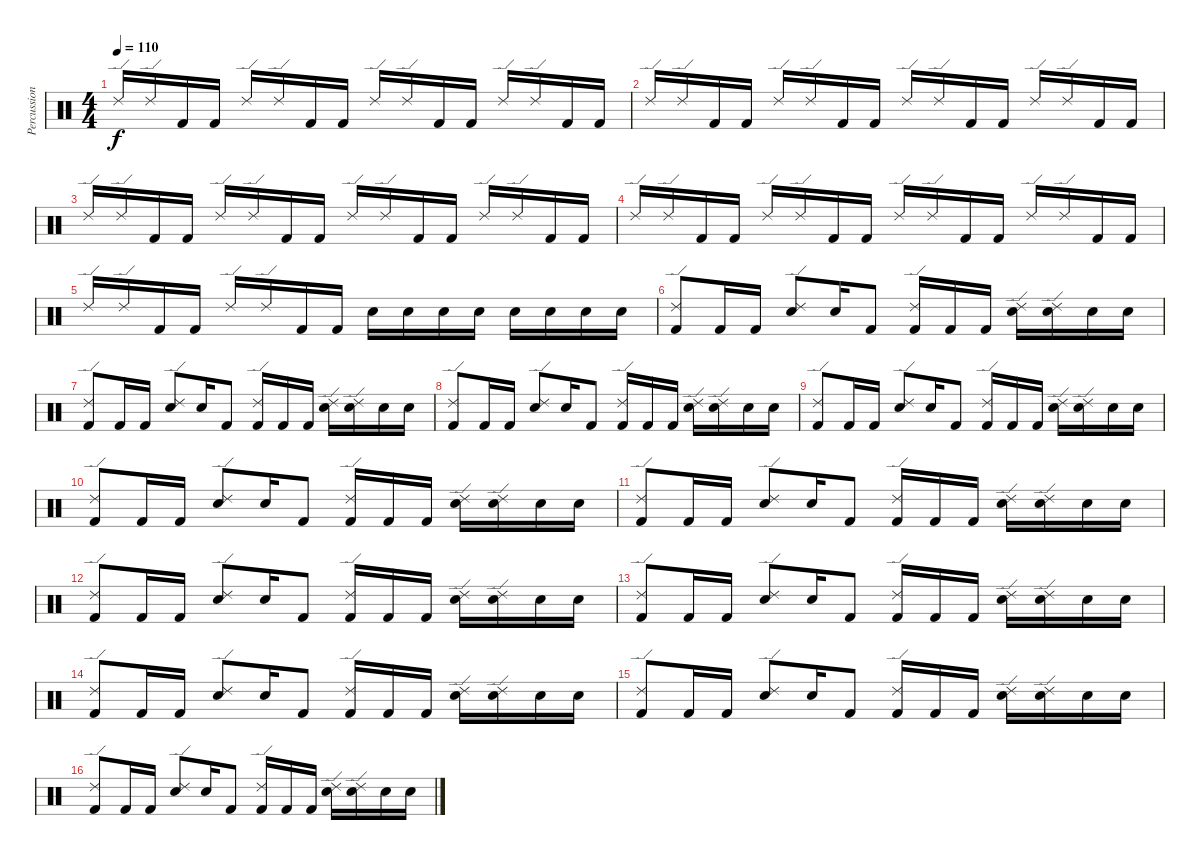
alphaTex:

\track ("Percussion" "Percussion") {instrument percussion}
\staff {score}
\articulation defaults
\ts (4 4)
\tempo 110
\clef neutral
\ks c "Ride (edge) 2".16{dy f} "Ride (edge) 2".16 "Kick (hit) 2".16 "Kick (hit) 2".16 "Ride (edge) 2".16 "Ride (edge) 2".16 "Kick (hit) 2".16 "Kick (hit) 2".16 "Ride (edge) 2".16 "Ride (edge) 2".16 "Kick (hit) 2".16 "Kick (hit) 2".16 "Ride (edge) 2".16 "Ride (edge) 2".16 "Kick (hit) 2".16 "Kick (hit) 2".16
|
"Ride (edge) 2".16 "Ride (edge) 2".16 "Kick (hit) 2".16 "Kick (hit) 2".16 "Ride (edge) 2".16 "Ride (edge) 2".16 "Kick (hit) 2".16 "Kick (hit) 2".16 "Ride (edge) 2".16 "Ride (edge) 2".16 "Kick (hit) 2".16 "Kick (hit) 2".16 "Ride (edge) 2".16 "Ride (edge) 2".16 "Kick (hit) 2".16 "Kick (hit) 2".16 |
"Ride (edge) 2".16 "Ride (edge) 2".16 "Kick (hit) 2".16 "Kick (hit) 2".16 "Ride (edge) 2".16 "Ride (edge) 2".16 "Kick (hit) 2".16 "Kick (hit) 2".16 "Ride (edge) 2".16 "Ride (edge) 2".16 "Kick (hit) 2".16 "Kick (hit) 2".16 "Ride (edge) 2".16 "Ride (edge) 2".16 "Kick (hit) 2".16 "Kick (hit) 2".16 |
"Ride (edge) 2".16 "Ride (edge) 2".16 "Kick (hit) 2".16 "Kick (hit) 2".16 "Ride (edge) 2".16 "Ride (edge) 2".16 "Kick (hit) 2".16 "Kick (hit) 2".16 "Ride (edge) 2".16 "Ride (edge) 2".16 "Kick (hit) 2".16 "Kick (hit) 2".16 "Ride (edge) 2".16 "Ride (edge) 2".16 "Kick (hit) 2".16 "Kick (hit) 2".16 |
"Ride (edge) 2".16 "Ride (edge) 2".16 "Kick (hit) 2".16 "Kick (hit) 2".16 "Ride (edge) 2".16 "Ride (edge) 2".16 "Kick (hit) 2".16 "Kick (hit) 2".16 "Electric Snare (hit)".16 "Electric Snare (hit)".16 "Electric Snare (hit)".16 "Electric Snare (hit)".16 "Electric Snare (hit)".16 "Electric Snare (hit)".16 "Electric Snare (hit)".16 "Electric Snare (hit)".16 |
("Ride (edge) 2" "Kick (hit) 2").8 "Kick (hit) 2".16 "Kick (hit) 2".16 ("Ride (edge) 2" "Electric Snare (hit)").8 "Electric Snare (hit)".16 "Kick (hit) 2".8 ("Ride (edge) 2" "Kick (hit) 2").16 "Kick (hit) 2".16 "Kick (hit) 2".16 ("Ride (edge) 2" "Electric Snare (hit)").16 ("Ride (edge) 2" "Electric Snare (hit)").16 "Electric Snare (hit)".16 "Electric Snare (hit)".16 |
("Ride (edge) 2" "Kick (hit) 2").8 "Kick (hit) 2".16 "Kick (hit) 2".16 ("Ride (edge) 2" "Electric Snare (hit)").8 "Electric Snare (hit)".16 "Kick (hit) 2".8 ("Ride (edge) 2" "Kick (hit) 2").16 "Kick (hit) 2".16 "Kick (hit) 2".16 ("Ride (edge) 2" "Electric Snare (hit)").16 ("Ride (edge) 2" "Electric Snare (hit)").16 "Electric Snare (hit)".16 "Electric Snare (hit)".16 |
("Ride (edge) 2" "Kick (hit) 2").8 "Kick (hit) 2".16 "Kick (hit) 2".16 ("Ride (edge) 2" "Electric Snare (hit)").8 "Electric Snare (hit)".16 "Kick (hit) 2".8 ("Ride (edge) 2" "Kick (hit) 2").16 "Kick (hit) 2".16 "Kick (hit) 2".16 ("Ride (edge) 2" "Electric Snare (hit)").16 ("Ride (edge) 2" "Electric Snare (hit)").16 "Electric Snare (hit)".16 "Electric Snare (hit)".16 |
("Ride (edge) 2" "Kick (hit) 2").8 "Kick (hit) 2".16 "Kick (hit) 2".16 ("Ride (edge) 2" "Electric Snare (hit)").8 "Electric Snare (hit)".16 "Kick (hit) 2".8 ("Ride (edge) 2" "Kick (hit) 2").16 "Kick (hit) 2".16 "Kick (hit) 2".16 ("Ride (edge) 2" "Electric Snare (hit)").16 ("Ride (edge) 2" "Electric Snare (hit)").16 "Electric Snare (hit)".16 "Electric Snare (hit)".16 |
("Ride (edge) 2" "Kick (hit) 2").8 "Kick (hit) 2".16 "Kick (hit) 2".16 ("Ride (edge) 2" "Electric Snare (hit)").8 "Electric Snare (hit)".16 "Kick (hit) 2".8 ("Ride (edge) 2" "Kick (hit) 2").16 "Kick (hit) 2".16 "Kick (hit) 2".16 ("Ride (edge) 2" "Electric Snare (hit)").16 ("Ride (edge) 2" "Electric Snare (hit)").16 "Electric Snare (hit)".16 "Electric Snare (hit)".16 |
("Ride (edge) 2" "Kick (hit) 2").8 "Kick (hit) 2".16 "Kick (hit) 2".16 ("Ride (edge) 2" "Electric Snare (hit)").8 "Electric Snare (hit)".16 "Kick (hit) 2".8 ("Ride (edge) 2" "Kick (hit) 2").16 "Kick (hit) 2".16 "Kick (hit) 2".16 ("Ride (edge) 2" "Electric Snare (hit)").16 ("Ride (edge) 2" "Electric Snare (hit)").16 "Electric Snare (hit)".16 "Electric Snare (hit)".16 |
("Ride (edge) 2" "Kick (hit) 2").8 "Kick (hit) 2".16 "Kick (hit) 2".16 ("Ride (edge) 2" "Electric Snare (hit)").8 "Electric Snare (hit)".16 "Kick (hit) 2".8 ("Ride (edge) 2" "Kick (hit) 2").16 "Kick (hit) 2".16 "Kick (hit) 2".16 ("Ride (edge) 2" "Electric Snare (hit)").16 ("Ride (edge) 2" "Electric Snare (hit)").16 "Electric Snare (hit)".16 "Electric Snare (hit)".16 |
("Ride (edge) 2" "Kick (hit) 2").8 "Kick (hit) 2".16 "Kick (hit) 2".16 ("Ride (edge) 2" "Electric Snare (hit)").8 "Electric Snare (hit)".16 "Kick (hit) 2".8 ("Ride (edge) 2" "Kick (hit) 2").16 "Kick (hit) 2".16 "Kick (hit) 2".16 ("Ride (edge) 2" "Electric Snare (hit)").16 ("Ride (edge) 2" "Electric Snare (hit)").16 "Electric Snare (hit)".16 "Electric Snare (hit)".16 |
("Ride (edge) 2" "Kick (hit) 2").8 "Kick (hit) 2".16 "Kick (hit) 2".16 ("Ride (edge) 2" "Electric Snare (hit)").8 "Electric Snare (hit)".16 "Kick (hit) 2".8 ("Ride (edge) 2" "Kick (hit) 2").16 "Kick (hit) 2".16 "Kick (hit) 2".16 ("Ride (edge) 2" "Electric Snare (hit)").16 ("Ride (edge) 2" "Electric Snare (hit)").16 "Electric Snare (hit)".16 "Electric Snare (hit)".16 |
("Ride (edge) 2" "Kick (hit) 2").8 "Kick (hit) 2".16 "Kick (hit) 2".16 ("Ride (edge) 2" "Electric Snare (hit)").8 "Electric Snare (hit)".16 "Kick (hit) 2".8 ("Ride (edge) 2" "Kick (hit) 2").16 "Kick (hit) 2".16 "Kick (hit) 2".16 ("Ride (edge) 2" "Electric Snare (hit)").16 ("Ride (edge) 2" "Electric Snare (hit)").16 "Electric Snare (hit)".16 "Electric Snare (hit)".16 |
("Ride (edge) 2" "Kick (hit) 2").8 "Kick (hit) 2".16 "Kick (hit) 2".16 ("Ride (edge) 2" "Electric Snare (hit)").8 "Electric Snare (hit)".16 "Kick (hit) 2".8 ("Ride (edge) 2" "Kick (hit) 2").16 "Kick (hit) 2".16 "Kick (hit) 2".16 ("Ride (edge) 2" "Electric Snare (hit)").16 ("Ride (edge) 2" "Electric Snare (hit)").16 "Electric Snare (hit)".16 "Electric Snare (hit)".16
